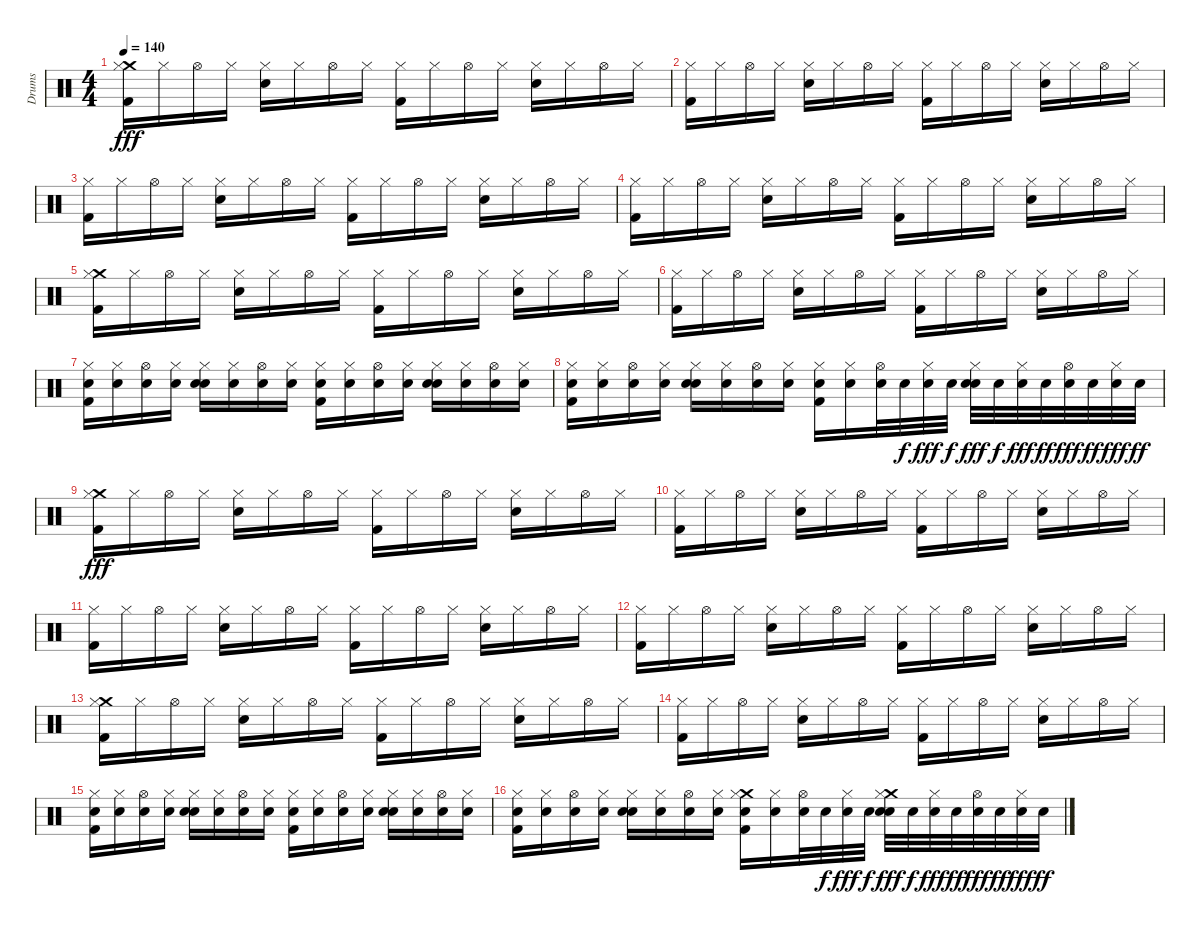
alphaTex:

\track ("Drums" "Drums") {instrument percussion}
\staff {score}
\articulation defaults
\ts (4 4)
\tempo 140
\clef neutral
\ks c
("Crash medium (hit)" "Hi-Hat (closed)" "Kick (hit) 2").16{dy fff} "Hi-Hat (closed)".16 "Hi-Hat (open)".16 "Hi-Hat (closed)".16 ("Hi-Hat (closed)" "Electric Snare (hit)").16 "Hi-Hat (closed)".16 "Hi-Hat (open)".16 "Hi-Hat (closed)".16 ("Hi-Hat (closed)" "Kick (hit) 2").16 "Hi-Hat (closed)".16 "Hi-Hat (open)".16 "Hi-Hat (closed)".16 ("Hi-Hat (closed)" "Electric Snare (hit)").16 "Hi-Hat (closed)".16 "Hi-Hat (open)".16 "Hi-Hat (closed)".16 |
("Hi-Hat (closed)" "Kick (hit) 2").16 "Hi-Hat (closed)".16 "Hi-Hat (open)".16 "Hi-Hat (closed)".16 ("Hi-Hat (closed)" "Electric Snare (hit)").16 "Hi-Hat (closed)".16 "Hi-Hat (open)".16 "Hi-Hat (closed)".16 ("Hi-Hat (closed)" "Kick (hit) 2").16 "Hi-Hat (closed)".16 "Hi-Hat (open)".16 "Hi-Hat (closed)".16 ("Hi-Hat (closed)" "Electric Snare (hit)").16 "Hi-Hat (closed)".16 "Hi-Hat (open)".16 "Hi-Hat (closed)".16 |
("Hi-Hat (closed)" "Kick (hit) 2").16 "Hi-Hat (closed)".16 "Hi-Hat (open)".16 "Hi-Hat (closed)".16 ("Hi-Hat (closed)" "Electric Snare (hit)").16 "Hi-Hat (closed)".16 "Hi-Hat (open)".16 "Hi-Hat (closed)".16 ("Hi-Hat (closed)" "Kick (hit) 2").16 "Hi-Hat (closed)".16 "Hi-Hat (open)".16 "Hi-Hat (closed)".16 ("Hi-Hat (closed)" "Electric Snare (hit)").16 "Hi-Hat (closed)".16 "Hi-Hat (open)".16 "Hi-Hat (closed)".16 |
("Hi-Hat (closed)" "Kick (hit) 2").16 "Hi-Hat (closed)".16 "Hi-Hat (open)".16 "Hi-Hat (closed)".16 ("Hi-Hat (closed)" "Electric Snare (hit)").16 "Hi-Hat (closed)".16 "Hi-Hat (open)".16 "Hi-Hat (closed)".16 ("Hi-Hat (closed)" "Kick (hit) 2").16 "Hi-Hat (closed)".16 "Hi-Hat (open)".16 "Hi-Hat (closed)".16 ("Hi-Hat (closed)" "Electric Snare (hit)").16 "Hi-Hat (closed)".16 "Hi-Hat (open)".16 "Hi-Hat (closed)".16 |
("Crash medium (hit)" "Hi-Hat (closed)" "Kick (hit) 2").16 "Hi-Hat (closed)".16 "Hi-Hat (open)".16 "Hi-Hat (closed)".16 ("Hi-Hat (closed)" "Electric Snare (hit)").16 "Hi-Hat (closed)".16 "Hi-Hat (open)".16 "Hi-Hat (closed)".16 ("Hi-Hat (closed)" "Kick (hit) 2").16 "Hi-Hat (closed)".16 "Hi-Hat (open)".16 "Hi-Hat (closed)".16 ("Hi-Hat (closed)" "Electric Snare (hit)").16 "Hi-Hat (closed)".16 "Hi-Hat (open)".16 "Hi-Hat (closed)".16 |
("Hi-Hat (closed)" "Kick (hit) 2").16 "Hi-Hat (closed)".16 "Hi-Hat (open)".16 "Hi-Hat (closed)".16 ("Hi-Hat (closed)" "Electric Snare (hit)").16 "Hi-Hat (closed)".16 "Hi-Hat (open)".16 "Hi-Hat (closed)".16 ("Hi-Hat (closed)" "Kick (hit) 2").16 "Hi-Hat (closed)".16 "Hi-Hat (open)".16 "Hi-Hat (closed)".16 ("Hi-Hat (closed)" "Electric Snare (hit)").16 "Hi-Hat (closed)".16 "Hi-Hat (open)".16 "Hi-Hat (closed)".16 |
("Snare (hit) 2" "Hi-Hat (closed)" "Kick (hit) 2").16 ("Snare (hit) 2" "Hi-Hat (closed)").16 ("Snare (hit) 2" "Hi-Hat (open)").16 ("Snare (hit) 2" "Hi-Hat (closed)").16 ("Snare (hit) 2" "Hi-Hat (closed)" "Electric Snare (hit)").16 ("Snare (hit) 2" "Hi-Hat (closed)").16 ("Snare (hit) 2" "Hi-Hat (open)").16 ("Snare (hit) 2" "Hi-Hat (closed)").16 ("Snare (hit) 2" "Hi-Hat (closed)" "Kick (hit) 2").16 ("Snare (hit) 2" "Hi-Hat (closed)").16 ("Snare (hit) 2" "Hi-Hat (open)").16 ("Snare (hit) 2" "Hi-Hat (closed)").16 ("Snare (hit) 2" "Hi-Hat (closed)" "Electric Snare (hit)").16 ("Snare (hit) 2" "Hi-Hat (closed)").16 ("Snare (hit) 2" "Hi-Hat (open)").16 ("Snare (hit) 2" "Hi-Hat (closed)").16 |
("Snare (hit) 2" "Hi-Hat (closed)" "Kick (hit) 2").16 ("Snare (hit) 2" "Hi-Hat (closed)").16 ("Snare (hit) 2" "Hi-Hat (open)").16 ("Snare (hit) 2" "Hi-Hat (closed)").16 ("Snare (hit) 2" "Hi-Hat (closed)" "Electric Snare (hit)").16 ("Snare (hit) 2" "Hi-Hat (closed)").16 ("Snare (hit) 2" "Hi-Hat (open)").16 ("Snare (hit) 2" "Hi-Hat (closed)").16 ("Snare (hit) 2" "Hi-Hat (closed)" "Kick (hit) 2").16 ("Snare (hit) 2" "Hi-Hat (closed)").16 ("Snare (hit) 2" "Hi-Hat (open)").32 "Snare (hit) 2".32{dy f} ("Snare (hit) 2" "Hi-Hat (closed)").32{dy fff} "Snare (hit) 2".32{dy f} ("Snare (hit) 2" "Hi-Hat (closed)" "Electric Snare (hit)").32{dy fff} "Snare (hit) 2".32{dy f} ("Snare (hit) 2" "Hi-Hat (closed)").32{dy fff} "Snare (hit) 2".32{dy ff} ("Snare (hit) 2" "Hi-Hat (open)").32{dy fff} "Snare (hit) 2".32{dy ff} ("Snare (hit) 2" "Hi-Hat (closed)").32{dy fff} "Snare (hit) 2".32{dy ff} |
("Crash medium (hit)" "Hi-Hat (closed)" "Kick (hit) 2").16{dy fff} "Hi-Hat (closed)".16 "Hi-Hat (open)".16 "Hi-Hat (closed)".16 ("Hi-Hat (closed)" "Electric Snare (hit)").16 "Hi-Hat (closed)".16 "Hi-Hat (open)".16 "Hi-Hat (closed)".16 ("Hi-Hat (closed)" "Kick (hit) 2").16 "Hi-Hat (closed)".16 "Hi-Hat (open)".16 "Hi-Hat (closed)".16 ("Hi-Hat (closed)" "Electric Snare (hit)").16 "Hi-Hat (closed)".16 "Hi-Hat (open)".16 "Hi-Hat (closed)".16 |
("Hi-Hat (closed)" "Kick (hit) 2").16 "Hi-Hat (closed)".16 "Hi-Hat (open)".16 "Hi-Hat (closed)".16 ("Hi-Hat (closed)" "Electric Snare (hit)").16 "Hi-Hat (closed)".16 "Hi-Hat (open)".16 "Hi-Hat (closed)".16 ("Hi-Hat (closed)" "Kick (hit) 2").16 "Hi-Hat (closed)".16 "Hi-Hat (open)".16 "Hi-Hat (closed)".16 ("Hi-Hat (closed)" "Electric Snare (hit)").16 "Hi-Hat (closed)".16 "Hi-Hat (open)".16 "Hi-Hat (closed)".16 |
("Hi-Hat (closed)" "Kick (hit) 2").16 "Hi-Hat (closed)".16 "Hi-Hat (open)".16 "Hi-Hat (closed)".16 ("Hi-Hat (closed)" "Electric Snare (hit)").16 "Hi-Hat (closed)".16 "Hi-Hat (open)".16 "Hi-Hat (closed)".16 ("Hi-Hat (closed)" "Kick (hit) 2").16 "Hi-Hat (closed)".16 "Hi-Hat (open)".16 "Hi-Hat (closed)".16 ("Hi-Hat (closed)" "Electric Snare (hit)").16 "Hi-Hat (closed)".16 "Hi-Hat (open)".16 "Hi-Hat (closed)".16 |
("Hi-Hat (closed)" "Kick (hit) 2").16 "Hi-Hat (closed)".16 "Hi-Hat (open)".16 "Hi-Hat (closed)".16 ("Hi-Hat (closed)" "Electric Snare (hit)").16 "Hi-Hat (closed)".16 "Hi-Hat (open)".16 "Hi-Hat (closed)".16 ("Hi-Hat (closed)" "Kick (hit) 2").16 "Hi-Hat (closed)".16 "Hi-Hat (open)".16 "Hi-Hat (closed)".16 ("Hi-Hat (closed)" "Electric Snare (hit)").16 "Hi-Hat (closed)".16 "Hi-Hat (open)".16 "Hi-Hat (closed)".16 |
("Crash medium (hit)" "Hi-Hat (closed)" "Kick (hit) 2").16 "Hi-Hat (closed)".16 "Hi-Hat (open)".16 "Hi-Hat (closed)".16 ("Hi-Hat (closed)" "Electric Snare (hit)").16 "Hi-Hat (closed)".16 "Hi-Hat (open)".16 "Hi-Hat (closed)".16 ("Hi-Hat (closed)" "Kick (hit) 2").16 "Hi-Hat (closed)".16 "Hi-Hat (open)".16 "Hi-Hat (closed)".16 ("Hi-Hat (closed)" "Electric Snare (hit)").16 "Hi-Hat (closed)".16 "Hi-Hat (open)".16 "Hi-Hat (closed)".16 |
("Hi-Hat (closed)" "Kick (hit) 2").16 "Hi-Hat (closed)".16 "Hi-Hat (open)".16 "Hi-Hat (closed)".16 ("Hi-Hat (closed)" "Electric Snare (hit)").16 "Hi-Hat (closed)".16 "Hi-Hat (open)".16 "Hi-Hat (closed)".16 ("Hi-Hat (closed)" "Kick (hit) 2").16 "Hi-Hat (closed)".16 "Hi-Hat (open)".16 "Hi-Hat (closed)".16 ("Hi-Hat (closed)" "Electric Snare (hit)").16 "Hi-Hat (closed)".16 "Hi-Hat (open)".16 "Hi-Hat (closed)".16 |
("Snare (hit) 2" "Hi-Hat (closed)" "Kick (hit) 2").16 ("Snare (hit) 2" "Hi-Hat (closed)").16 ("Snare (hit) 2" "Hi-Hat (open)").16 ("Snare (hit) 2" "Hi-Hat (closed)").16 ("Snare (hit) 2" "Hi-Hat (closed)" "Electric Snare (hit)").16 ("Snare (hit) 2" "Hi-Hat (closed)").16 ("Snare (hit) 2" "Hi-Hat (open)").16 ("Snare (hit) 2" "Hi-Hat (closed)").16 ("Snare (hit) 2" "Hi-Hat (closed)" "Kick (hit) 2").16 ("Snare (hit) 2" "Hi-Hat (closed)").16 ("Snare (hit) 2" "Hi-Hat (open)").16 ("Snare (hit) 2" "Hi-Hat (closed)").16 ("Snare (hit) 2" "Hi-Hat (closed)" "Electric Snare (hit)").16 ("Snare (hit) 2" "Hi-Hat (closed)").16 ("Snare (hit) 2" "Hi-Hat (open)").16 ("Snare (hit) 2" "Hi-Hat (closed)").16 |
("Snare (hit) 2" "Hi-Hat (closed)" "Kick (hit) 2").16 ("Snare (hit) 2" "Hi-Hat (closed)").16 ("Snare (hit) 2" "Hi-Hat (open)").16 ("Snare (hit) 2" "Hi-Hat (closed)").16 ("Snare (hit) 2" "Hi-Hat (closed)" "Electric Snare (hit)").16 ("Snare (hit) 2" "Hi-Hat (closed)").16 ("Snare (hit) 2" "Hi-Hat (open)").16 ("Snare (hit) 2" "Hi-Hat (closed)").16 ("Crash medium (hit)" "Snare (hit) 2" "Hi-Hat (closed)" "Kick (hit) 2").16 ("Snare (hit) 2" "Hi-Hat (closed)").16 ("Snare (hit) 2" "Hi-Hat (open)").32 "Snare (hit) 2".32{dy f} ("Snare (hit) 2" "Hi-Hat (closed)").32{dy fff} "Snare (hit) 2".32{dy f} ("Crash medium (hit)" "Snare (hit) 2" "Hi-Hat (closed)" "Electric Snare (hit)").32{dy fff} "Snare (hit) 2".32{dy f} ("Snare (hit) 2" "Hi-Hat (closed)").32{dy fff} "Snare (hit) 2".32{dy ff} ("Snare (hit) 2" "Hi-Hat (open)").32{dy fff} "Snare (hit) 2".32{dy ff} ("Snare (hit) 2" "Hi-Hat (closed)").32{dy fff} "Snare (hit) 2".32{dy ff}
